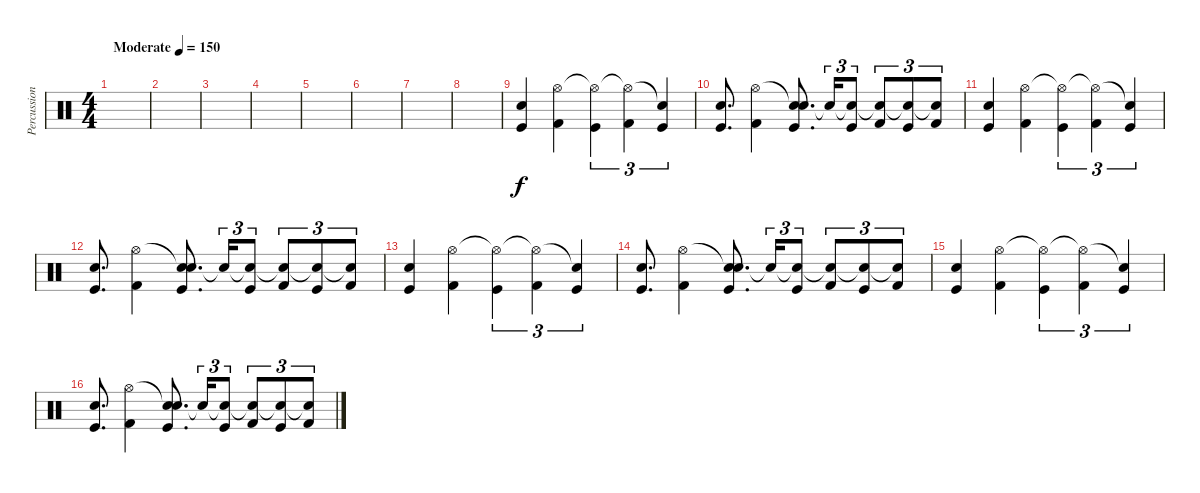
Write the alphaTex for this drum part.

\track ("Percussion" "Percussion") {instrument percussion}
\staff {score}
\articulation defaults
\ts (4 4)
\tempo (150 "Moderate")
\clef neutral
\ks c
|
|
|
|
|
|
|
|
("Snare (hit) 2" "Kick (hit)").4 ("Hi-Hat (open)" "Kick (hit) 2").4 ("Hi-Hat (open)"{t} "Kick (hit)").4{tu (3 2)} ("Hi-Hat (open)"{t} "Kick (hit) 2").4{tu (3 2)} ("Snare (hit)"{t} "Kick (hit)").4{tu (3 2)} |
("Snare (hit) 2" "Kick (hit)").8{d} ("Hi-Hat (open)" "Kick (hit) 2").4 ("Snare (hit)"{t} "Snare (hit) 2" "Kick (hit)").8{d} "Snare (hit)"{t}.16{tu (3 2)} ("Snare (hit)"{t} "Kick (hit)").8{tu (3 2)} ("Snare (hit)"{t} "Kick (hit) 2").8{tu (3 2)} ("Snare (hit)"{t} "Kick (hit)").8{tu (3 2)} ("Snare (hit)"{t} "Kick (hit) 2").8{tu (3 2)} |
("Snare (hit) 2" "Kick (hit)").4 ("Hi-Hat (open)" "Kick (hit) 2").4 ("Hi-Hat (open)"{t} "Kick (hit)").4{tu (3 2)} ("Hi-Hat (open)"{t} "Kick (hit) 2").4{tu (3 2)} ("Snare (hit)"{t} "Kick (hit)").4{tu (3 2)} |
("Snare (hit) 2" "Kick (hit)").8{d} ("Hi-Hat (open)" "Kick (hit) 2").4 ("Snare (hit)"{t} "Snare (hit) 2" "Kick (hit)").8{d} "Snare (hit)"{t}.16{tu (3 2)} ("Snare (hit)"{t} "Kick (hit)").8{tu (3 2)} ("Snare (hit)"{t} "Kick (hit) 2").8{tu (3 2)} ("Snare (hit)"{t} "Kick (hit)").8{tu (3 2)} ("Snare (hit)"{t} "Kick (hit) 2").8{tu (3 2)} |
("Snare (hit) 2" "Kick (hit)").4 ("Hi-Hat (open)" "Kick (hit) 2").4 ("Hi-Hat (open)"{t} "Kick (hit)").4{tu (3 2)} ("Hi-Hat (open)"{t} "Kick (hit) 2").4{tu (3 2)} ("Snare (hit)"{t} "Kick (hit)").4{tu (3 2)} |
("Snare (hit) 2" "Kick (hit)").8{d} ("Hi-Hat (open)" "Kick (hit) 2").4 ("Snare (hit)"{t} "Snare (hit) 2" "Kick (hit)").8{d} "Snare (hit)"{t}.16{tu (3 2)} ("Snare (hit)"{t} "Kick (hit)").8{tu (3 2)} ("Snare (hit)"{t} "Kick (hit) 2").8{tu (3 2)} ("Snare (hit)"{t} "Kick (hit)").8{tu (3 2)} ("Snare (hit)"{t} "Kick (hit) 2").8{tu (3 2)} |
("Snare (hit) 2" "Kick (hit)").4 ("Hi-Hat (open)" "Kick (hit) 2").4 ("Hi-Hat (open)"{t} "Kick (hit)").4{tu (3 2)} ("Hi-Hat (open)"{t} "Kick (hit) 2").4{tu (3 2)} ("Snare (hit)"{t} "Kick (hit)").4{tu (3 2)} |
("Snare (hit) 2" "Kick (hit)").8{d} ("Hi-Hat (open)" "Kick (hit) 2").4 ("Snare (hit)"{t} "Snare (hit) 2" "Kick (hit)").8{d} "Snare (hit)"{t}.16{tu (3 2)} ("Snare (hit)"{t} "Kick (hit)").8{tu (3 2)} ("Snare (hit)"{t} "Kick (hit) 2").8{tu (3 2)} ("Snare (hit)"{t} "Kick (hit)").8{tu (3 2)} ("Snare (hit)"{t} "Kick (hit) 2").8{tu (3 2)}
